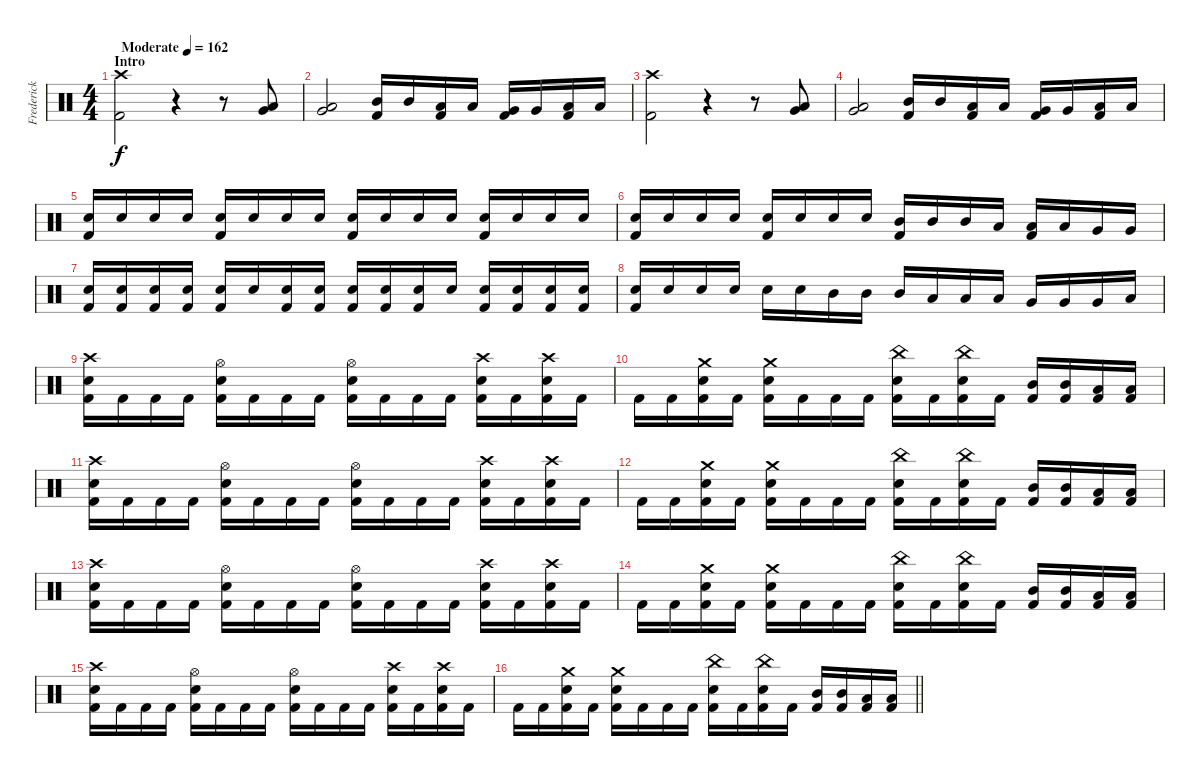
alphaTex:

\track ("Frederick Ehmke" "Frederick ") {instrument percussion}
\staff {score}
\articulation defaults
\ts (4 4)
\section ("" "Intro")
\tempo (162 "Moderate")
\clef neutral
\ks c
("Crash high (hit)" "Kick (hit) 2").2{dy f} r.4 r.8 ("Very Low Tom (hit)" "Low Floor Tom (hit)").8 |
("Very Low Tom (hit)" "Low Floor Tom (hit)").2 ("Mid Tom (hit)" "Kick (hit) 2").16 "Mid Tom (hit)".16 ("Low Tom (hit)" "Kick (hit) 2").16 "Low Tom (hit)".16 ("Very Low Tom (hit)" "Kick (hit) 2").16 "Very Low Tom (hit)".16 ("Low Floor Tom (hit)" "Kick (hit) 2").16 "Low Floor Tom (hit)".16 |
("Crash high (hit)" "Kick (hit) 2").2 r.4 r.8 ("Very Low Tom (hit)" "Low Floor Tom (hit)").8 |
("Very Low Tom (hit)" "Low Floor Tom (hit)").2 ("Mid Tom (hit)" "Kick (hit) 2").16 "Mid Tom (hit)".16 ("Low Tom (hit)" "Kick (hit) 2").16 "Low Tom (hit)".16 ("Very Low Tom (hit)" "Kick (hit) 2").16 "Very Low Tom (hit)".16 ("Low Floor Tom (hit)" "Kick (hit) 2").16 "Low Floor Tom (hit)".16 |
("Electric Snare (hit)" "Kick (hit) 2").16{volume 10} "Electric Snare (hit)".16 "Electric Snare (hit)".16 "Electric Snare (hit)".16 ("Electric Snare (hit)" "Kick (hit) 2").16 "Electric Snare (hit)".16 "Electric Snare (hit)".16 "Electric Snare (hit)".16 ("Electric Snare (hit)" "Kick (hit) 2").16 "Electric Snare (hit)".16 "Electric Snare (hit)".16 "Electric Snare (hit)".16 ("Electric Snare (hit)" "Kick (hit) 2").16 "Electric Snare (hit)".16 "Electric Snare (hit)".16 "Electric Snare (hit)".16 |
("Electric Snare (hit)" "Kick (hit) 2").16 "Electric Snare (hit)".16 "Electric Snare (hit)".16 "Electric Snare (hit)".16 ("Electric Snare (hit)" "Kick (hit) 2").16 "Electric Snare (hit)".16 "Electric Snare (hit)".16 "Electric Snare (hit)".16 ("Mid Tom (hit)" "Kick (hit) 2").16 "Mid Tom (hit)".16 "Mid Tom (hit)".16 "Low Tom (hit)".16 ("Low Tom (hit)" "Kick (hit) 2").16 "Low Tom (hit)".16 "Very Low Tom (hit)".16 "Very Low Tom (hit)".16 |
("Electric Snare (hit)" "Kick (hit) 2").16{volume 13} ("Electric Snare (hit)" "Kick (hit) 2").16{volume 9} ("Electric Snare (hit)" "Kick (hit) 2").16 ("Electric Snare (hit)" "Kick (hit) 2").16 ("Electric Snare (hit)" "Kick (hit) 2").16 "Electric Snare (hit)".16 ("Electric Snare (hit)" "Kick (hit) 2").16{volume 13} ("Electric Snare (hit)" "Kick (hit) 2").16{volume 9} ("Electric Snare (hit)" "Kick (hit) 2").16 ("Electric Snare (hit)" "Kick (hit) 2").16 ("Electric Snare (hit)" "Kick (hit) 2").16 "Electric Snare (hit)".16 ("Electric Snare (hit)" "Kick (hit) 2").16{volume 13} ("Electric Snare (hit)" "Kick (hit) 2").16{volume 9} ("Electric Snare (hit)" "Kick (hit) 2").16 ("Electric Snare (hit)" "Kick (hit) 2").16 |
("Electric Snare (hit)" "Kick (hit) 2").16{volume 13} "Electric Snare (hit)".16 "Electric Snare (hit)".16 "Electric Snare (hit)".16 "Electric Snare (hit)".16 "Electric Snare (hit)".16 "Mid Tom (hit)".16 "Mid Tom (hit)".16 "Mid Tom (hit)".16 "Low Tom (hit)".16 "Low Tom (hit)".16 "Low Tom (hit)".16 "Very Low Tom (hit)".16 "Very Low Tom (hit)".16 "Very Low Tom (hit)".16 "Low Floor Tom (hit)".16 |
("Electric Snare (hit)" "Crash high (hit)" "Kick (hit) 2").16 "Kick (hit) 2".16 "Kick (hit) 2".16 "Kick (hit) 2".16 ("Electric Snare (hit)" "Hi-Hat (open)" "Kick (hit) 2").16 "Kick (hit) 2".16 "Kick (hit) 2".16 "Kick (hit) 2".16 ("Electric Snare (hit)" "Hi-Hat (open)" "Kick (hit) 2").16 "Kick (hit) 2".16 "Kick (hit) 2".16 "Kick (hit) 2".16 ("Electric Snare (hit)" "Crash high (hit)" "Kick (hit) 2").16 "Kick (hit) 2".16 ("Electric Snare (hit)" "Crash high (hit)" "Kick (hit) 2").16 "Kick (hit) 2".16 |
"Kick (hit) 2".16 "Kick (hit) 2".16 ("Electric Snare (hit)" "Crash medium (hit)" "Kick (hit) 2").16 "Kick (hit) 2".16 ("Electric Snare (hit)" "Crash medium (hit)" "Kick (hit) 2").16 "Kick (hit) 2".16 "Kick (hit) 2".16 "Kick (hit) 2".16 ("Electric Snare (hit)" "China (hit)" "Kick (hit) 2").16 "Kick (hit) 2".16 ("Electric Snare (hit)" "China (hit)" "Kick (hit) 2").16 "Kick (hit) 2".16 ("Mid Tom (hit)" "Kick (hit) 2").16 ("Mid Tom (hit)" "Kick (hit) 2").16 ("Low Tom (hit)" "Kick (hit) 2").16 ("Low Tom (hit)" "Kick (hit) 2").16 |
("Electric Snare (hit)" "Crash high (hit)" "Kick (hit) 2").16 "Kick (hit) 2".16 "Kick (hit) 2".16 "Kick (hit) 2".16 ("Electric Snare (hit)" "Hi-Hat (open)" "Kick (hit) 2").16 "Kick (hit) 2".16 "Kick (hit) 2".16 "Kick (hit) 2".16 ("Electric Snare (hit)" "Hi-Hat (open)" "Kick (hit) 2").16 "Kick (hit) 2".16 "Kick (hit) 2".16 "Kick (hit) 2".16 ("Electric Snare (hit)" "Crash high (hit)" "Kick (hit) 2").16 "Kick (hit) 2".16 ("Electric Snare (hit)" "Crash high (hit)" "Kick (hit) 2").16 "Kick (hit) 2".16 |
"Kick (hit) 2".16 "Kick (hit) 2".16 ("Electric Snare (hit)" "Crash medium (hit)" "Kick (hit) 2").16 "Kick (hit) 2".16 ("Electric Snare (hit)" "Crash medium (hit)" "Kick (hit) 2").16 "Kick (hit) 2".16 "Kick (hit) 2".16 "Kick (hit) 2".16 ("Electric Snare (hit)" "China (hit)" "Kick (hit) 2").16 "Kick (hit) 2".16 ("Electric Snare (hit)" "China (hit)" "Kick (hit) 2").16 "Kick (hit) 2".16 ("Mid Tom (hit)" "Kick (hit) 2").16 ("Mid Tom (hit)" "Kick (hit) 2").16 ("Low Tom (hit)" "Kick (hit) 2").16 ("Low Tom (hit)" "Kick (hit) 2").16 |
("Electric Snare (hit)" "Crash high (hit)" "Kick (hit) 2").16 "Kick (hit) 2".16 "Kick (hit) 2".16 "Kick (hit) 2".16 ("Electric Snare (hit)" "Hi-Hat (open)" "Kick (hit) 2").16 "Kick (hit) 2".16 "Kick (hit) 2".16 "Kick (hit) 2".16 ("Electric Snare (hit)" "Hi-Hat (open)" "Kick (hit) 2").16 "Kick (hit) 2".16 "Kick (hit) 2".16 "Kick (hit) 2".16 ("Electric Snare (hit)" "Crash high (hit)" "Kick (hit) 2").16 "Kick (hit) 2".16 ("Electric Snare (hit)" "Crash high (hit)" "Kick (hit) 2").16 "Kick (hit) 2".16 |
"Kick (hit) 2".16 "Kick (hit) 2".16 ("Electric Snare (hit)" "Crash medium (hit)" "Kick (hit) 2").16 "Kick (hit) 2".16 ("Electric Snare (hit)" "Crash medium (hit)" "Kick (hit) 2").16 "Kick (hit) 2".16 "Kick (hit) 2".16 "Kick (hit) 2".16 ("Electric Snare (hit)" "China (hit)" "Kick (hit) 2").16 "Kick (hit) 2".16 ("Electric Snare (hit)" "China (hit)" "Kick (hit) 2").16 "Kick (hit) 2".16 ("Mid Tom (hit)" "Kick (hit) 2").16 ("Mid Tom (hit)" "Kick (hit) 2").16 ("Low Tom (hit)" "Kick (hit) 2").16 ("Low Tom (hit)" "Kick (hit) 2").16 |
("Electric Snare (hit)" "Crash high (hit)" "Kick (hit) 2").16 "Kick (hit) 2".16 "Kick (hit) 2".16 "Kick (hit) 2".16 ("Electric Snare (hit)" "Hi-Hat (open)" "Kick (hit) 2").16 "Kick (hit) 2".16 "Kick (hit) 2".16 "Kick (hit) 2".16 ("Electric Snare (hit)" "Hi-Hat (open)" "Kick (hit) 2").16 "Kick (hit) 2".16 "Kick (hit) 2".16 "Kick (hit) 2".16 ("Electric Snare (hit)" "Crash high (hit)" "Kick (hit) 2").16 "Kick (hit) 2".16 ("Electric Snare (hit)" "Crash high (hit)" "Kick (hit) 2").16 "Kick (hit) 2".16 |
\barLineRight lightlight "Kick (hit) 2".16 "Kick (hit) 2".16
("Electric Snare (hit)" "Crash medium (hit)" "Kick (hit) 2").16 "Kick (hit) 2".16 ("Electric Snare (hit)" "Crash medium (hit)" "Kick (hit) 2").16 "Kick (hit) 2".16 "Kick (hit) 2".16 "Kick (hit) 2".16 ("Electric Snare (hit)" "China (hit)" "Kick (hit) 2").16 "Kick (hit) 2".16 ("Electric Snare (hit)" "China (hit)" "Kick (hit) 2").16 "Kick (hit) 2".16 ("Mid Tom (hit)" "Kick (hit) 2").16 ("Mid Tom (hit)" "Kick (hit) 2").16 ("Low Tom (hit)" "Kick (hit) 2").16 ("Low Tom (hit)" "Kick (hit) 2").16
